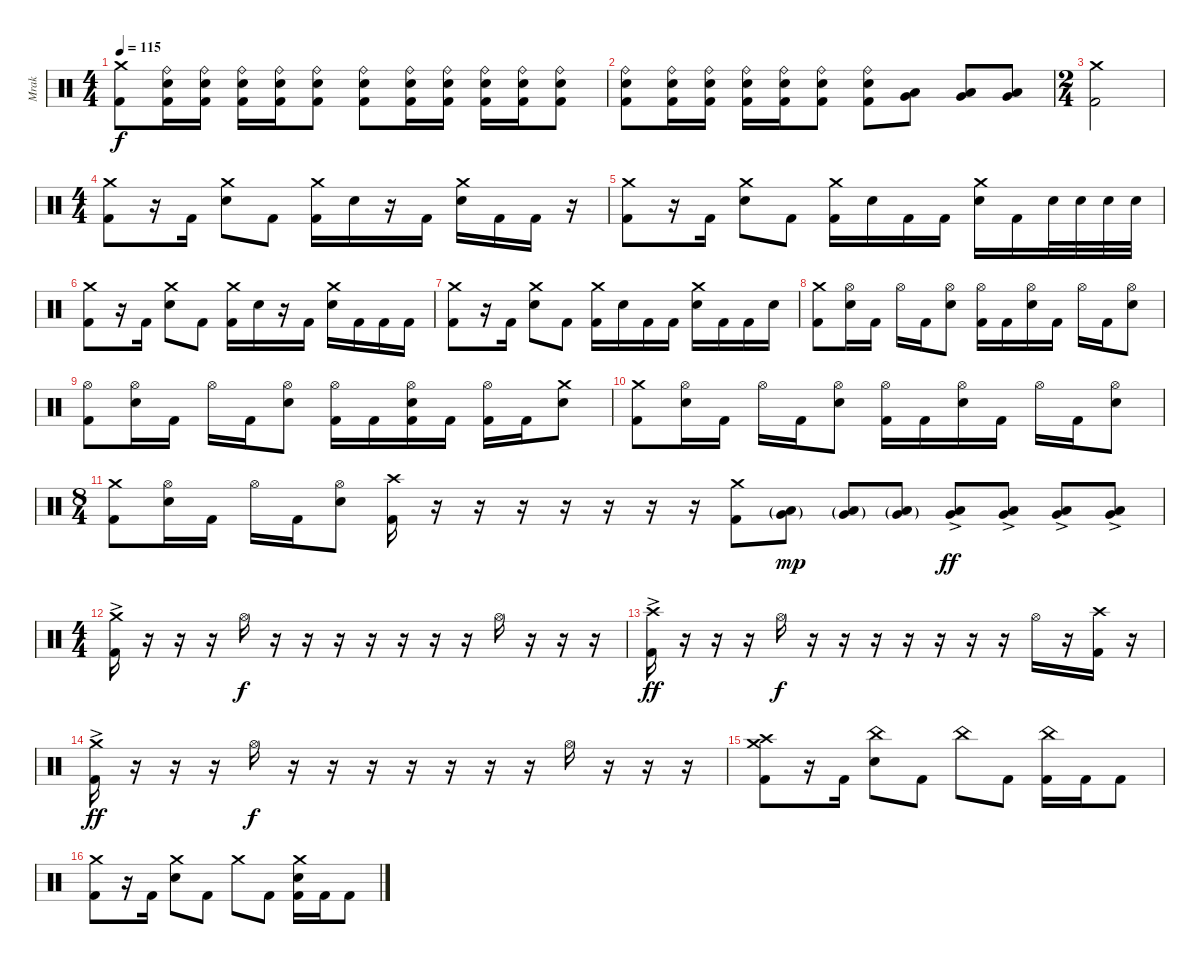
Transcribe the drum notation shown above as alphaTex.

\track ("Mrak" "Mrak") {instrument percussion}
\staff {score}
\articulation defaults
\ts (4 4)
\tempo 115
\clef neutral
\ks c
("Crash medium (hit)" "Kick (hit) 2").8{dy f} ("Kick (hit) 2" "Electric Snare (hit)" "Ride (bell)").16 ("Kick (hit) 2" "Electric Snare (hit)" "Ride (bell)").16 ("Kick (hit) 2" "Electric Snare (hit)" "Ride (bell)").16 ("Kick (hit) 2" "Electric Snare (hit)" "Ride (bell)").16 ("Kick (hit) 2" "Electric Snare (hit)" "Ride (bell)").8 ("Kick (hit) 2" "Electric Snare (hit)" "Ride (bell)").8 ("Kick (hit) 2" "Electric Snare (hit)" "Ride (bell)").16 ("Kick (hit) 2" "Electric Snare (hit)" "Ride (bell)").16 ("Kick (hit) 2" "Electric Snare (hit)" "Ride (bell)").16 ("Kick (hit) 2" "Electric Snare (hit)" "Ride (bell)").16 ("Kick (hit) 2" "Electric Snare (hit)" "Ride (bell)").8 |
("Ride (bell)" "Electric Snare (hit)" "Kick (hit) 2").8 ("Kick (hit) 2" "Electric Snare (hit)" "Ride (bell)").16 ("Kick (hit) 2" "Electric Snare (hit)" "Ride (bell)").16 ("Kick (hit) 2" "Electric Snare (hit)" "Ride (bell)").16 ("Kick (hit) 2" "Electric Snare (hit)" "Ride (bell)").16 ("Kick (hit) 2" "Electric Snare (hit)" "Ride (bell)").8 ("Kick (hit) 2" "Electric Snare (hit)" "Ride (bell)").8 ("Very Low Tom (hit)" "Low Floor Tom (hit)").8 ("Very Low Tom (hit)" "Low Floor Tom (hit)").8 ("Very Low Tom (hit)" "Low Floor Tom (hit)").8 |
\ts (2 4)
("Crash medium (hit)" "Kick (hit) 2").2 |
\ts (4 4)
("Crash medium (hit)" "Kick (hit) 2").8 r.16 "Kick (hit) 2".16 ("Crash medium (hit)" "Electric Snare (hit)").8 "Kick (hit) 2".8 ("Crash medium (hit)" "Kick (hit) 2").16 "Electric Snare (hit)".16 r.16 "Kick (hit) 2".16 ("Crash medium (hit)" "Electric Snare (hit)").16 "Kick (hit) 2".16 "Kick (hit) 2".16 r.16 |
("Crash medium (hit)" "Kick (hit) 2").8 r.16 "Kick (hit) 2".16 ("Crash medium (hit)" "Electric Snare (hit)").8 "Kick (hit) 2".8 ("Crash medium (hit)" "Kick (hit) 2").16 "Electric Snare (hit)".16 "Kick (hit) 2".16 "Kick (hit) 2".16 ("Crash medium (hit)" "Electric Snare (hit)").16 "Kick (hit) 2".16 "Electric Snare (hit)".32 "Electric Snare (hit)".32 "Electric Snare (hit)".32 "Electric Snare (hit)".32 |
("Crash medium (hit)" "Kick (hit) 2").8 r.16 "Kick (hit) 2".16 ("Crash medium (hit)" "Electric Snare (hit)").8 "Kick (hit) 2".8 ("Crash medium (hit)" "Kick (hit) 2").16 "Electric Snare (hit)".16 r.16 "Kick (hit) 2".16 ("Crash medium (hit)" "Electric Snare (hit)").16 "Kick (hit) 2".16 "Kick (hit) 2".16 "Kick (hit) 2".16 |
("Crash medium (hit)" "Kick (hit) 2").8 r.16 "Kick (hit) 2".16 ("Crash medium (hit)" "Electric Snare (hit)").8 "Kick (hit) 2".8 ("Crash medium (hit)" "Kick (hit) 2").16 "Electric Snare (hit)".16 "Kick (hit) 2".16 "Kick (hit) 2".16 ("Crash medium (hit)" "Electric Snare (hit)").16 "Kick (hit) 2".16 "Kick (hit) 2".16 "Electric Snare (hit)".16 |
("Crash medium (hit)" "Kick (hit) 2").8 ("Hi-Hat (open)" "Electric Snare (hit)").16 "Kick (hit) 2".16 "Hi-Hat (open)".16 "Kick (hit) 2".16 ("Hi-Hat (open)" "Electric Snare (hit)").8 ("Hi-Hat (open)" "Kick (hit) 2").16 "Kick (hit) 2".16 ("Hi-Hat (open)" "Electric Snare (hit)").16 "Kick (hit) 2".16 "Hi-Hat (open)".16 "Kick (hit) 2".16 ("Hi-Hat (open)" "Electric Snare (hit)").8 |
("Hi-Hat (open)" "Kick (hit) 2").8 ("Hi-Hat (open)" "Electric Snare (hit)").16 "Kick (hit) 2".16 "Hi-Hat (open)".16 "Kick (hit) 2".16 ("Hi-Hat (open)" "Electric Snare (hit)").8 ("Hi-Hat (open)" "Kick (hit) 2").16 "Kick (hit) 2".16 ("Hi-Hat (open)" "Electric Snare (hit)" "Kick (hit) 2").16 "Kick (hit) 2".16 ("Hi-Hat (open)" "Kick (hit) 2").16 "Kick (hit) 2".16 ("Crash medium (hit)" "Electric Snare (hit)").8 |
("Crash medium (hit)" "Kick (hit) 2").8 ("Hi-Hat (open)" "Electric Snare (hit)").16 "Kick (hit) 2".16 "Hi-Hat (open)".16 "Kick (hit) 2".16 ("Hi-Hat (open)" "Electric Snare (hit)").8 ("Hi-Hat (open)" "Kick (hit) 2").16 "Kick (hit) 2".16 ("Hi-Hat (open)" "Electric Snare (hit)").16 "Kick (hit) 2".16 "Hi-Hat (open)".16 "Kick (hit) 2".16 ("Hi-Hat (open)" "Electric Snare (hit)").8 |
\ts (8 4)
("Crash medium (hit)" "Kick (hit) 2").8 ("Hi-Hat (open)" "Electric Snare (hit)").16 "Kick (hit) 2".16 "Hi-Hat (open)".16 "Kick (hit) 2".16 ("Hi-Hat (open)" "Electric Snare (hit)").8 ("Crash high (hit)" "Kick (hit) 2").16 r.16 r.16 r.16 r.16 r.16 r.16 r.16 ("Crash medium (hit)" "Kick (hit) 2").8 ("Low Floor Tom (hit)"{g} "Very Low Tom (hit)"{g}).8{dy mp} ("Low Floor Tom (hit)"{g} "Very Low Tom (hit)"{g}).8 ("Low Floor Tom (hit)"{g} "Very Low Tom (hit)"{g}).8 ("Low Floor Tom (hit)"{ac} "Very Low Tom (hit)"{ac}).8{dy ff} ("Low Floor Tom (hit)"{ac} "Very Low Tom (hit)"{ac}).8 ("Low Floor Tom (hit)"{ac} "Very Low Tom (hit)"{ac}).8 ("Low Floor Tom (hit)"{ac} "Very Low Tom (hit)"{ac}).8 |
\ts (4 4)
("Crash medium (hit)"{ac} "Kick (hit) 2").16 r.16 r.16 r.16 "Hi-Hat (open)".16{dy f} r.16 r.16 r.16 r.16 r.16 r.16 r.16 "Hi-Hat (open)".16 r.16 r.16 r.16 |
("Crash high (hit)"{ac} "Kick (hit) 2").16{dy ff} r.16 r.16 r.16 "Hi-Hat (open)".16{dy f} r.16 r.16 r.16 r.16 r.16 r.16 r.16 "Hi-Hat (open)".16 r.16 ("Crash high (hit)" "Kick (hit) 2").16 r.16 |
("Crash medium (hit)"{ac} "Kick (hit) 2").16{dy ff} r.16 r.16 r.16 "Hi-Hat (open)".16{dy f} r.16 r.16 r.16 r.16 r.16 r.16 r.16 "Hi-Hat (open)".16 r.16 r.16 r.16 |
("Crash high (hit)" "Crash medium (hit)" "Kick (hit) 2").8 r.16 "Kick (hit) 2".16 ("China (hit)" "Electric Snare (hit)").8 "Kick (hit) 2".8 "China (hit)".8 "Kick (hit) 2".8 ("China (hit)" "Kick (hit) 2").16 "Kick (hit) 2".16 "Kick (hit) 2".8 |
("Crash medium (hit)" "Kick (hit) 2").8 r.16 "Kick (hit) 2".16 ("Crash medium (hit)" "Electric Snare (hit)").8 "Kick (hit) 2".8 "Crash medium (hit)".8 "Kick (hit) 2".8 ("Crash medium (hit)" "Electric Snare (hit)" "Kick (hit) 2").16 "Kick (hit) 2".16 "Kick (hit) 2".8
